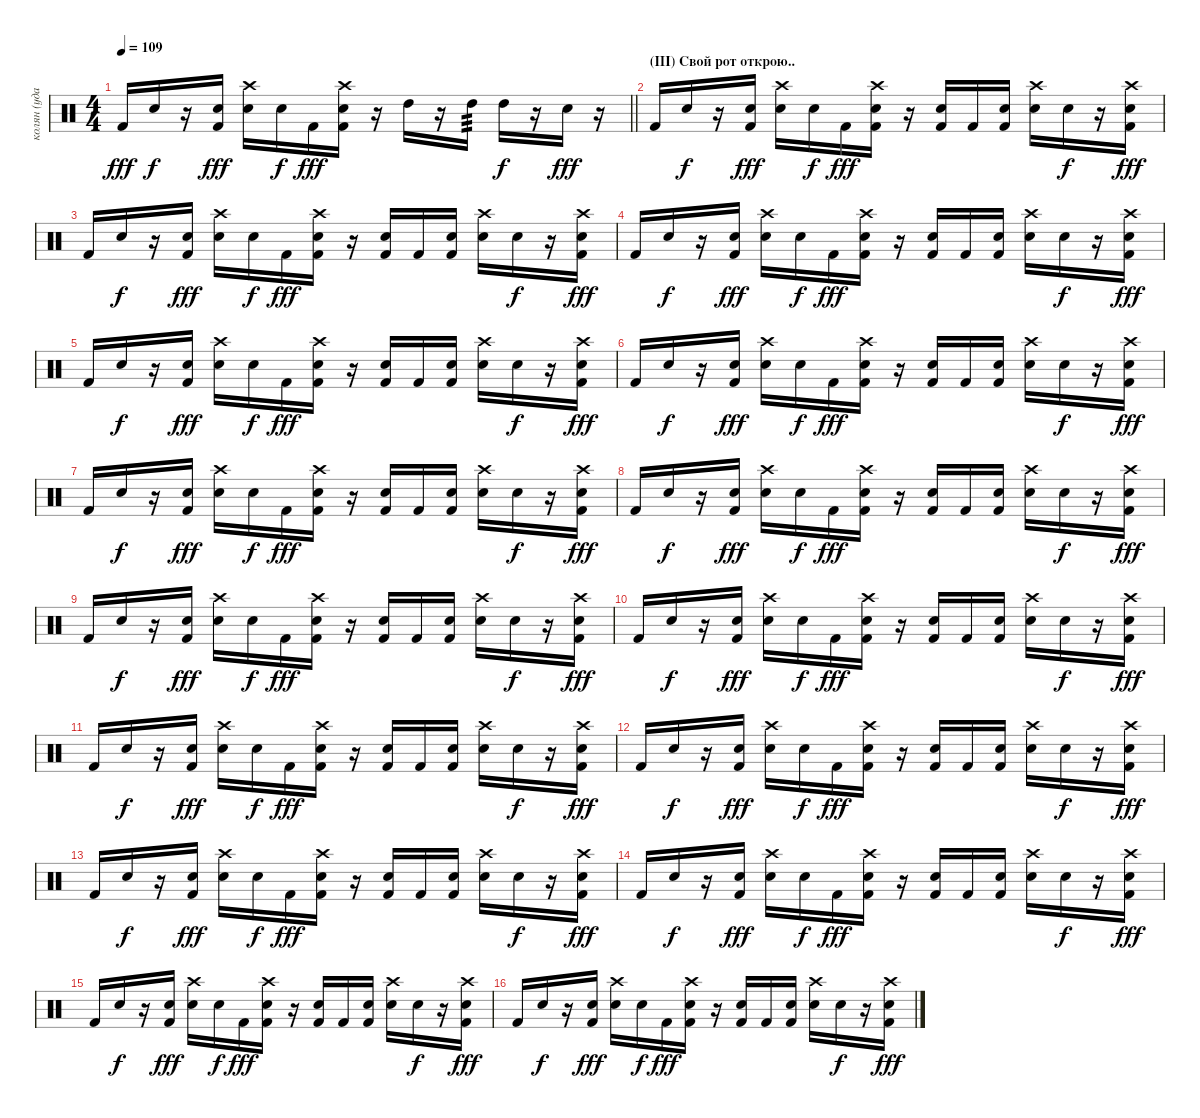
\track ("колян (ударные)" "колян (уда") {instrument percussion}
\staff
\articulation defaults
\ts (4 4)
\tempo 109
\clef neutral
\barLineRight lightlight
\ks c "Kick (hit) 2".16{dy fff} "Snare (hit) 2".16{dy f}
r.16 ("Snare (hit) 2" "Kick (hit) 2").16{dy fff} ("Crash high (hit)" "Snare (hit) 2").16 "Snare (hit) 2".16{dy f} "Kick (hit) 2".16{dy fff} ("Crash high (hit)" "Snare (hit) 2" "Kick (hit) 2").16 r.16 "High Tom (hit)".16 r.16 "High Tom (hit)".16{tp 3} "High Tom (hit)".16{dy f} r.16 "Snare (hit) 2".16{dy fff} r.16 |
\section ("" "(III) Свой рот открою..")
"Kick (hit) 2".16 "Snare (hit) 2".16{dy f} r.16 ("Snare (hit) 2" "Kick (hit) 2").16{dy fff} ("Crash high (hit)" "Snare (hit) 2").16 "Snare (hit) 2".16{dy f} "Kick (hit) 2".16{dy fff} ("Crash high (hit)" "Snare (hit) 2" "Kick (hit) 2").16 r.16 ("Snare (hit) 2" "Kick (hit) 2").16 "Kick (hit) 2".16 ("Snare (hit) 2" "Kick (hit) 2").16 ("Crash high (hit)" "Snare (hit) 2").16 "Snare (hit) 2".16{dy f} r.16 ("Crash high (hit)" "Snare (hit) 2" "Kick (hit) 2").16{dy fff} |
"Kick (hit) 2".16 "Snare (hit) 2".16{dy f} r.16 ("Snare (hit) 2" "Kick (hit) 2").16{dy fff} ("Crash high (hit)" "Snare (hit) 2").16 "Snare (hit) 2".16{dy f} "Kick (hit) 2".16{dy fff} ("Crash high (hit)" "Snare (hit) 2" "Kick (hit) 2").16 r.16 ("Snare (hit) 2" "Kick (hit) 2").16 "Kick (hit) 2".16 ("Snare (hit) 2" "Kick (hit) 2").16 ("Crash high (hit)" "Snare (hit) 2").16 "Snare (hit) 2".16{dy f} r.16 ("Crash high (hit)" "Snare (hit) 2" "Kick (hit) 2").16{dy fff} |
"Kick (hit) 2".16 "Snare (hit) 2".16{dy f} r.16 ("Snare (hit) 2" "Kick (hit) 2").16{dy fff} ("Crash high (hit)" "Snare (hit) 2").16 "Snare (hit) 2".16{dy f} "Kick (hit) 2".16{dy fff} ("Crash high (hit)" "Snare (hit) 2" "Kick (hit) 2").16 r.16 ("Snare (hit) 2" "Kick (hit) 2").16 "Kick (hit) 2".16 ("Snare (hit) 2" "Kick (hit) 2").16 ("Crash high (hit)" "Snare (hit) 2").16 "Snare (hit) 2".16{dy f} r.16 ("Crash high (hit)" "Snare (hit) 2" "Kick (hit) 2").16{dy fff} |
"Kick (hit) 2".16 "Snare (hit) 2".16{dy f} r.16 ("Snare (hit) 2" "Kick (hit) 2").16{dy fff} ("Crash high (hit)" "Snare (hit) 2").16 "Snare (hit) 2".16{dy f} "Kick (hit) 2".16{dy fff} ("Crash high (hit)" "Snare (hit) 2" "Kick (hit) 2").16 r.16 ("Snare (hit) 2" "Kick (hit) 2").16 "Kick (hit) 2".16 ("Snare (hit) 2" "Kick (hit) 2").16 ("Crash high (hit)" "Snare (hit) 2").16 "Snare (hit) 2".16{dy f} r.16 ("Crash high (hit)" "Snare (hit) 2" "Kick (hit) 2").16{dy fff} |
"Kick (hit) 2".16 "Snare (hit) 2".16{dy f} r.16 ("Snare (hit) 2" "Kick (hit) 2").16{dy fff} ("Crash high (hit)" "Snare (hit) 2").16 "Snare (hit) 2".16{dy f} "Kick (hit) 2".16{dy fff} ("Crash high (hit)" "Snare (hit) 2" "Kick (hit) 2").16 r.16 ("Snare (hit) 2" "Kick (hit) 2").16 "Kick (hit) 2".16 ("Snare (hit) 2" "Kick (hit) 2").16 ("Crash high (hit)" "Snare (hit) 2").16 "Snare (hit) 2".16{dy f} r.16 ("Crash high (hit)" "Snare (hit) 2" "Kick (hit) 2").16{dy fff} |
"Kick (hit) 2".16 "Snare (hit) 2".16{dy f} r.16 ("Snare (hit) 2" "Kick (hit) 2").16{dy fff} ("Crash high (hit)" "Snare (hit) 2").16 "Snare (hit) 2".16{dy f} "Kick (hit) 2".16{dy fff} ("Crash high (hit)" "Snare (hit) 2" "Kick (hit) 2").16 r.16 ("Snare (hit) 2" "Kick (hit) 2").16 "Kick (hit) 2".16 ("Snare (hit) 2" "Kick (hit) 2").16 ("Crash high (hit)" "Snare (hit) 2").16 "Snare (hit) 2".16{dy f} r.16 ("Crash high (hit)" "Snare (hit) 2" "Kick (hit) 2").16{dy fff} |
"Kick (hit) 2".16 "Snare (hit) 2".16{dy f} r.16 ("Snare (hit) 2" "Kick (hit) 2").16{dy fff} ("Crash high (hit)" "Snare (hit) 2").16 "Snare (hit) 2".16{dy f} "Kick (hit) 2".16{dy fff} ("Crash high (hit)" "Snare (hit) 2" "Kick (hit) 2").16 r.16 ("Snare (hit) 2" "Kick (hit) 2").16 "Kick (hit) 2".16 ("Snare (hit) 2" "Kick (hit) 2").16 ("Crash high (hit)" "Snare (hit) 2").16 "Snare (hit) 2".16{dy f} r.16 ("Crash high (hit)" "Snare (hit) 2" "Kick (hit) 2").16{dy fff} |
"Kick (hit) 2".16 "Snare (hit) 2".16{dy f} r.16 ("Snare (hit) 2" "Kick (hit) 2").16{dy fff} ("Crash high (hit)" "Snare (hit) 2").16 "Snare (hit) 2".16{dy f} "Kick (hit) 2".16{dy fff} ("Crash high (hit)" "Snare (hit) 2" "Kick (hit) 2").16 r.16 ("Snare (hit) 2" "Kick (hit) 2").16 "Kick (hit) 2".16 ("Snare (hit) 2" "Kick (hit) 2").16 ("Crash high (hit)" "Snare (hit) 2").16 "Snare (hit) 2".16{dy f} r.16 ("Crash high (hit)" "Snare (hit) 2" "Kick (hit) 2").16{dy fff} |
"Kick (hit) 2".16 "Snare (hit) 2".16{dy f} r.16 ("Snare (hit) 2" "Kick (hit) 2").16{dy fff} ("Crash high (hit)" "Snare (hit) 2").16 "Snare (hit) 2".16{dy f} "Kick (hit) 2".16{dy fff} ("Crash high (hit)" "Snare (hit) 2" "Kick (hit) 2").16 r.16 ("Snare (hit) 2" "Kick (hit) 2").16 "Kick (hit) 2".16 ("Snare (hit) 2" "Kick (hit) 2").16 ("Crash high (hit)" "Snare (hit) 2").16 "Snare (hit) 2".16{dy f} r.16 ("Crash high (hit)" "Snare (hit) 2" "Kick (hit) 2").16{dy fff} |
"Kick (hit) 2".16 "Snare (hit) 2".16{dy f} r.16 ("Snare (hit) 2" "Kick (hit) 2").16{dy fff} ("Crash high (hit)" "Snare (hit) 2").16 "Snare (hit) 2".16{dy f} "Kick (hit) 2".16{dy fff} ("Crash high (hit)" "Snare (hit) 2" "Kick (hit) 2").16 r.16 ("Snare (hit) 2" "Kick (hit) 2").16 "Kick (hit) 2".16 ("Snare (hit) 2" "Kick (hit) 2").16 ("Crash high (hit)" "Snare (hit) 2").16 "Snare (hit) 2".16{dy f} r.16 ("Crash high (hit)" "Snare (hit) 2" "Kick (hit) 2").16{dy fff} |
"Kick (hit) 2".16 "Snare (hit) 2".16{dy f} r.16 ("Snare (hit) 2" "Kick (hit) 2").16{dy fff} ("Crash high (hit)" "Snare (hit) 2").16 "Snare (hit) 2".16{dy f} "Kick (hit) 2".16{dy fff} ("Crash high (hit)" "Snare (hit) 2" "Kick (hit) 2").16 r.16 ("Snare (hit) 2" "Kick (hit) 2").16 "Kick (hit) 2".16 ("Snare (hit) 2" "Kick (hit) 2").16 ("Crash high (hit)" "Snare (hit) 2").16 "Snare (hit) 2".16{dy f} r.16 ("Crash high (hit)" "Snare (hit) 2" "Kick (hit) 2").16{dy fff} |
"Kick (hit) 2".16 "Snare (hit) 2".16{dy f} r.16 ("Snare (hit) 2" "Kick (hit) 2").16{dy fff} ("Crash high (hit)" "Snare (hit) 2").16 "Snare (hit) 2".16{dy f} "Kick (hit) 2".16{dy fff} ("Crash high (hit)" "Snare (hit) 2" "Kick (hit) 2").16 r.16 ("Snare (hit) 2" "Kick (hit) 2").16 "Kick (hit) 2".16 ("Snare (hit) 2" "Kick (hit) 2").16 ("Crash high (hit)" "Snare (hit) 2").16 "Snare (hit) 2".16{dy f} r.16 ("Crash high (hit)" "Snare (hit) 2" "Kick (hit) 2").16{dy fff} |
"Kick (hit) 2".16 "Snare (hit) 2".16{dy f} r.16 ("Snare (hit) 2" "Kick (hit) 2").16{dy fff} ("Crash high (hit)" "Snare (hit) 2").16 "Snare (hit) 2".16{dy f} "Kick (hit) 2".16{dy fff} ("Crash high (hit)" "Snare (hit) 2" "Kick (hit) 2").16 r.16 ("Snare (hit) 2" "Kick (hit) 2").16 "Kick (hit) 2".16 ("Snare (hit) 2" "Kick (hit) 2").16 ("Crash high (hit)" "Snare (hit) 2").16 "Snare (hit) 2".16{dy f} r.16 ("Crash high (hit)" "Snare (hit) 2" "Kick (hit) 2").16{dy fff} |
"Kick (hit) 2".16 "Snare (hit) 2".16{dy f} r.16 ("Snare (hit) 2" "Kick (hit) 2").16{dy fff} ("Crash high (hit)" "Snare (hit) 2").16 "Snare (hit) 2".16{dy f} "Kick (hit) 2".16{dy fff} ("Crash high (hit)" "Snare (hit) 2" "Kick (hit) 2").16 r.16 ("Snare (hit) 2" "Kick (hit) 2").16 "Kick (hit) 2".16 ("Snare (hit) 2" "Kick (hit) 2").16 ("Crash high (hit)" "Snare (hit) 2").16 "Snare (hit) 2".16{dy f} r.16 ("Crash high (hit)" "Snare (hit) 2" "Kick (hit) 2").16{dy fff} |
"Kick (hit) 2".16 "Snare (hit) 2".16{dy f} r.16 ("Snare (hit) 2" "Kick (hit) 2").16{dy fff} ("Crash high (hit)" "Snare (hit) 2").16 "Snare (hit) 2".16{dy f} "Kick (hit) 2".16{dy fff} ("Crash high (hit)" "Snare (hit) 2" "Kick (hit) 2").16 r.16 ("Snare (hit) 2" "Kick (hit) 2").16 "Kick (hit) 2".16 ("Snare (hit) 2" "Kick (hit) 2").16 ("Crash high (hit)" "Snare (hit) 2").16 "Snare (hit) 2".16{dy f} r.16 ("Crash high (hit)" "Snare (hit) 2" "Kick (hit) 2").16{dy fff}
